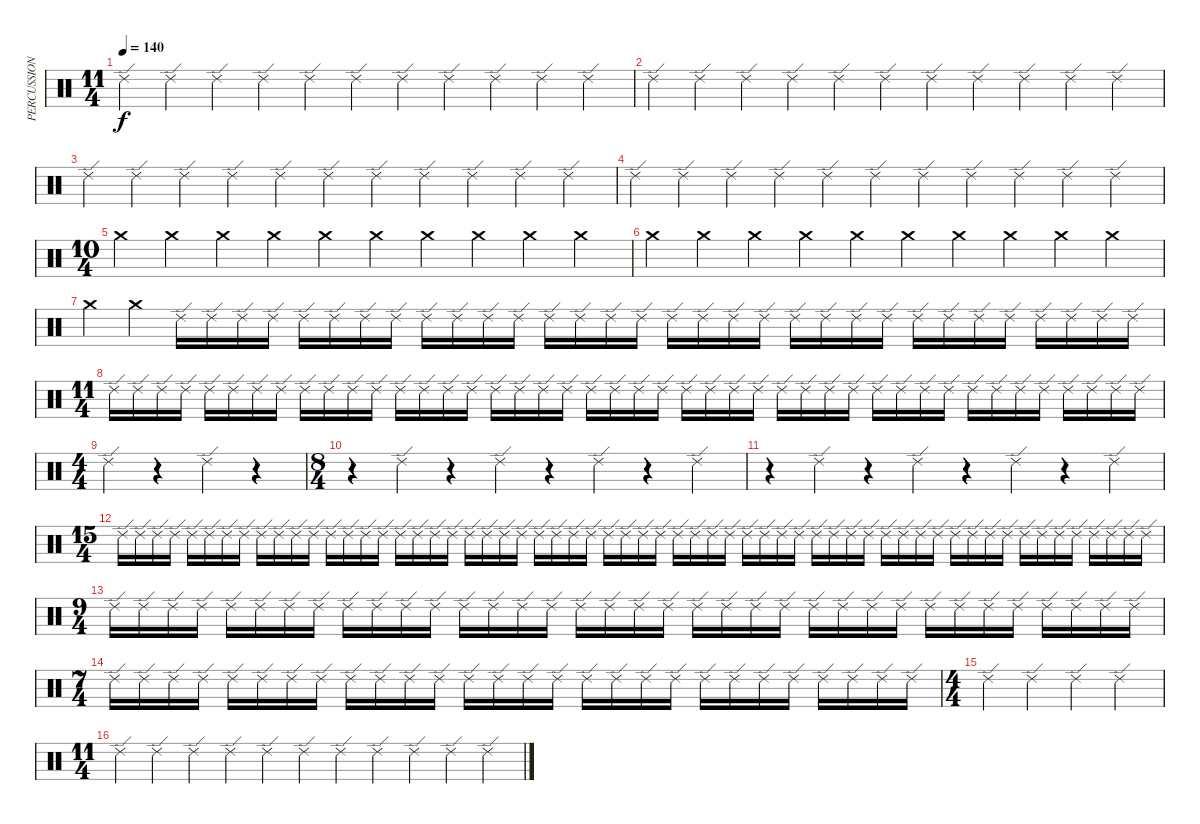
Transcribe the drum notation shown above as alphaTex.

\track ("PERCUSSION" "PERCUSSION") {instrument percussion}
\staff {score}
\articulation defaults
\ts (11 4)
\tempo 140
\clef neutral
\ks c "Ride (edge) 2".4{dy f} "Ride (edge) 2".4 "Ride (edge) 2".4 "Ride (edge) 2".4 "Ride (edge) 2".4 "Ride (edge) 2".4 "Ride (edge) 2".4 "Ride (edge) 2".4 "Ride (edge) 2".4 "Ride (edge) 2".4 "Ride (edge) 2".4
|
"Ride (edge) 2".4 "Ride (edge) 2".4 "Ride (edge) 2".4 "Ride (edge) 2".4 "Ride (edge) 2".4 "Ride (edge) 2".4 "Ride (edge) 2".4 "Ride (edge) 2".4 "Ride (edge) 2".4 "Ride (edge) 2".4 "Ride (edge) 2".4 |
"Ride (edge) 2".4 "Ride (edge) 2".4 "Ride (edge) 2".4 "Ride (edge) 2".4 "Ride (edge) 2".4 "Ride (edge) 2".4 "Ride (edge) 2".4 "Ride (edge) 2".4 "Ride (edge) 2".4 "Ride (edge) 2".4 "Ride (edge) 2".4 |
"Ride (edge) 2".4 "Ride (edge) 2".4 "Ride (edge) 2".4 "Ride (edge) 2".4 "Ride (edge) 2".4 "Ride (edge) 2".4 "Ride (edge) 2".4 "Ride (edge) 2".4 "Ride (edge) 2".4 "Ride (edge) 2".4 "Ride (edge) 2".4 |
\ts (10 4)
"Crash medium (hit)".4 "Crash medium (hit)".4 "Crash medium (hit)".4 "Crash medium (hit)".4 "Crash medium (hit)".4 "Crash medium (hit)".4 "Crash medium (hit)".4 "Crash medium (hit)".4 "Crash medium (hit)".4 "Crash medium (hit)".4 |
"Crash medium (hit)".4 "Crash medium (hit)".4 "Crash medium (hit)".4 "Crash medium (hit)".4 "Crash medium (hit)".4 "Crash medium (hit)".4 "Crash medium (hit)".4 "Crash medium (hit)".4 "Crash medium (hit)".4 "Crash medium (hit)".4 |
"Crash medium (hit)".4 "Crash medium (hit)".4 "Ride (edge) 2".16 "Ride (edge) 2".16 "Ride (edge) 2".16 "Ride (edge) 2".16 "Ride (edge) 2".16 "Ride (edge) 2".16 "Ride (edge) 2".16 "Ride (edge) 2".16 "Ride (edge) 2".16 "Ride (edge) 2".16 "Ride (edge) 2".16 "Ride (edge) 2".16 "Ride (edge) 2".16 "Ride (edge) 2".16 "Ride (edge) 2".16 "Ride (edge) 2".16 "Ride (edge) 2".16 "Ride (edge) 2".16 "Ride (edge) 2".16 "Ride (edge) 2".16 "Ride (edge) 2".16 "Ride (edge) 2".16 "Ride (edge) 2".16 "Ride (edge) 2".16 "Ride (edge) 2".16 "Ride (edge) 2".16 "Ride (edge) 2".16 "Ride (edge) 2".16 "Ride (edge) 2".16 "Ride (edge) 2".16 "Ride (edge) 2".16 "Ride (edge) 2".16 |
\ts (11 4)
"Ride (edge) 2".16 "Ride (edge) 2".16 "Ride (edge) 2".16 "Ride (edge) 2".16 "Ride (edge) 2".16 "Ride (edge) 2".16 "Ride (edge) 2".16 "Ride (edge) 2".16 "Ride (edge) 2".16 "Ride (edge) 2".16 "Ride (edge) 2".16 "Ride (edge) 2".16 "Ride (edge) 2".16 "Ride (edge) 2".16 "Ride (edge) 2".16 "Ride (edge) 2".16 "Ride (edge) 2".16 "Ride (edge) 2".16 "Ride (edge) 2".16 "Ride (edge) 2".16 "Ride (edge) 2".16 "Ride (edge) 2".16 "Ride (edge) 2".16 "Ride (edge) 2".16 "Ride (edge) 2".16 "Ride (edge) 2".16 "Ride (edge) 2".16 "Ride (edge) 2".16 "Ride (edge) 2".16 "Ride (edge) 2".16 "Ride (edge) 2".16 "Ride (edge) 2".16 "Ride (edge) 2".16 "Ride (edge) 2".16 "Ride (edge) 2".16 "Ride (edge) 2".16 "Ride (edge) 2".16 "Ride (edge) 2".16 "Ride (edge) 2".16 "Ride (edge) 2".16 "Ride (edge) 2".16 "Ride (edge) 2".16 "Ride (edge) 2".16 "Ride (edge) 2".16 |
\ts (4 4)
"Ride (edge) 2".4 r.4 "Ride (edge) 2".4 r.4 |
\ts (8 4)
r.4 "Ride (edge) 2".4 r.4 "Ride (edge) 2".4 r.4 "Ride (edge) 2".4 r.4 "Ride (edge) 2".4 |
r.4 "Ride (edge) 2".4 r.4 "Ride (edge) 2".4 r.4 "Ride (edge) 2".4 r.4 "Ride (edge) 2".4 |
\ts (15 4)
"Ride (edge) 2".16 "Ride (edge) 2".16 "Ride (edge) 2".16 "Ride (edge) 2".16 "Ride (edge) 2".16 "Ride (edge) 2".16 "Ride (edge) 2".16 "Ride (edge) 2".16 "Ride (edge) 2".16 "Ride (edge) 2".16 "Ride (edge) 2".16 "Ride (edge) 2".16 "Ride (edge) 2".16 "Ride (edge) 2".16 "Ride (edge) 2".16 "Ride (edge) 2".16 "Ride (edge) 2".16 "Ride (edge) 2".16 "Ride (edge) 2".16 "Ride (edge) 2".16 "Ride (edge) 2".16 "Ride (edge) 2".16 "Ride (edge) 2".16 "Ride (edge) 2".16 "Ride (edge) 2".16 "Ride (edge) 2".16 "Ride (edge) 2".16 "Ride (edge) 2".16 "Ride (edge) 2".16 "Ride (edge) 2".16 "Ride (edge) 2".16 "Ride (edge) 2".16 "Ride (edge) 2".16 "Ride (edge) 2".16 "Ride (edge) 2".16 "Ride (edge) 2".16 "Ride (edge) 2".16 "Ride (edge) 2".16 "Ride (edge) 2".16 "Ride (edge) 2".16 "Ride (edge) 2".16 "Ride (edge) 2".16 "Ride (edge) 2".16 "Ride (edge) 2".16 "Ride (edge) 2".16 "Ride (edge) 2".16 "Ride (edge) 2".16 "Ride (edge) 2".16 "Ride (edge) 2".16 "Ride (edge) 2".16 "Ride (edge) 2".16 "Ride (edge) 2".16 "Ride (edge) 2".16 "Ride (edge) 2".16 "Ride (edge) 2".16 "Ride (edge) 2".16 "Ride (edge) 2".16 "Ride (edge) 2".16 "Ride (edge) 2".16 "Ride (edge) 2".16 |
\ts (9 4)
"Ride (edge) 2".16 "Ride (edge) 2".16 "Ride (edge) 2".16 "Ride (edge) 2".16 "Ride (edge) 2".16 "Ride (edge) 2".16 "Ride (edge) 2".16 "Ride (edge) 2".16 "Ride (edge) 2".16 "Ride (edge) 2".16 "Ride (edge) 2".16 "Ride (edge) 2".16 "Ride (edge) 2".16 "Ride (edge) 2".16 "Ride (edge) 2".16 "Ride (edge) 2".16 "Ride (edge) 2".16 "Ride (edge) 2".16 "Ride (edge) 2".16 "Ride (edge) 2".16 "Ride (edge) 2".16 "Ride (edge) 2".16 "Ride (edge) 2".16 "Ride (edge) 2".16 "Ride (edge) 2".16 "Ride (edge) 2".16 "Ride (edge) 2".16 "Ride (edge) 2".16 "Ride (edge) 2".16 "Ride (edge) 2".16 "Ride (edge) 2".16 "Ride (edge) 2".16 "Ride (edge) 2".16 "Ride (edge) 2".16 "Ride (edge) 2".16 "Ride (edge) 2".16 |
\ts (7 4)
"Ride (edge) 2".16 "Ride (edge) 2".16 "Ride (edge) 2".16 "Ride (edge) 2".16 "Ride (edge) 2".16 "Ride (edge) 2".16 "Ride (edge) 2".16 "Ride (edge) 2".16 "Ride (edge) 2".16 "Ride (edge) 2".16 "Ride (edge) 2".16 "Ride (edge) 2".16 "Ride (edge) 2".16 "Ride (edge) 2".16 "Ride (edge) 2".16 "Ride (edge) 2".16 "Ride (edge) 2".16 "Ride (edge) 2".16 "Ride (edge) 2".16 "Ride (edge) 2".16 "Ride (edge) 2".16 "Ride (edge) 2".16 "Ride (edge) 2".16 "Ride (edge) 2".16 "Ride (edge) 2".16 "Ride (edge) 2".16 "Ride (edge) 2".16 "Ride (edge) 2".16 |
\ts (4 4)
"Ride (edge) 2".4 "Ride (edge) 2".4 "Ride (edge) 2".4 "Ride (edge) 2".4 |
\ts (11 4)
"Ride (edge) 2".4 "Ride (edge) 2".4 "Ride (edge) 2".4 "Ride (edge) 2".4 "Ride (edge) 2".4 "Ride (edge) 2".4 "Ride (edge) 2".4 "Ride (edge) 2".4 "Ride (edge) 2".4 "Ride (edge) 2".4 "Ride (edge) 2".4
